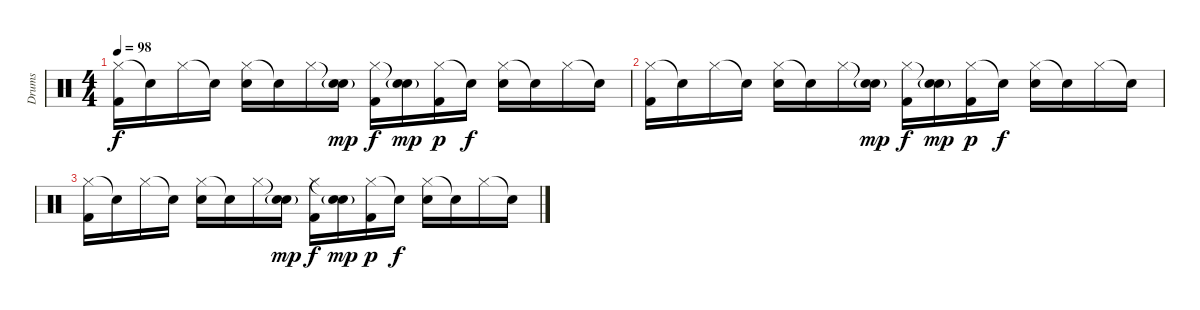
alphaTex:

\track ("Drums" "Drums") {instrument percussion}
\staff {score}
\articulation defaults
\ts (4 4)
\tempo 98
\clef neutral
\ks c
("Hi-Hat (closed)" "Kick (hit) 2").16{dy f} "Snare (hit)"{t}.16 "Hi-Hat (closed)".16 "Snare (hit)"{t}.16 ("Hi-Hat (closed)" "Snare (hit) 2").16 "Snare (hit)"{t}.16 "Hi-Hat (closed)".16 ("Snare (hit)"{t} "Snare (hit) 2"{g}).16{dy mp} ("Hi-Hat (closed)" "Kick (hit) 2").16{dy f} ("Snare (hit)"{t} "Snare (hit) 2"{g}).16{dy mp} ("Hi-Hat (closed)" "Kick (hit) 2").16{dy p} "Snare (hit)"{t}.16{dy f} ("Hi-Hat (closed)" "Snare (hit) 2").16 "Snare (hit)"{t}.16 "Hi-Hat (closed)".16 "Snare (hit)"{t}.16 |
("Hi-Hat (closed)" "Kick (hit) 2").16 "Snare (hit)"{t}.16 "Hi-Hat (closed)".16 "Snare (hit)"{t}.16 ("Hi-Hat (closed)" "Snare (hit) 2").16 "Snare (hit)"{t}.16 "Hi-Hat (closed)".16 ("Snare (hit)"{t} "Snare (hit) 2"{g}).16{dy mp} ("Hi-Hat (closed)" "Kick (hit) 2").16{dy f} ("Snare (hit)"{t} "Snare (hit) 2"{g}).16{dy mp} ("Hi-Hat (closed)" "Kick (hit) 2").16{dy p} "Snare (hit)"{t}.16{dy f} ("Hi-Hat (closed)" "Snare (hit) 2").16 "Snare (hit)"{t}.16 "Hi-Hat (closed)".16 "Snare (hit)"{t}.16 |
("Hi-Hat (closed)" "Kick (hit) 2").16 "Snare (hit)"{t}.16 "Hi-Hat (closed)".16 "Snare (hit)"{t}.16 ("Hi-Hat (closed)" "Snare (hit) 2").16 "Snare (hit)"{t}.16 "Hi-Hat (closed)".16 ("Snare (hit)"{t} "Snare (hit) 2"{g}).16{dy mp} ("Hi-Hat (closed)" "Kick (hit) 2").16{dy f} ("Snare (hit)"{t} "Snare (hit) 2"{g}).16{dy mp} ("Hi-Hat (closed)" "Kick (hit) 2").16{dy p} "Snare (hit)"{t}.16{dy f} ("Hi-Hat (closed)" "Snare (hit) 2").16 "Snare (hit)"{t}.16 "Hi-Hat (closed)".16 "Snare (hit)"{t}.16
